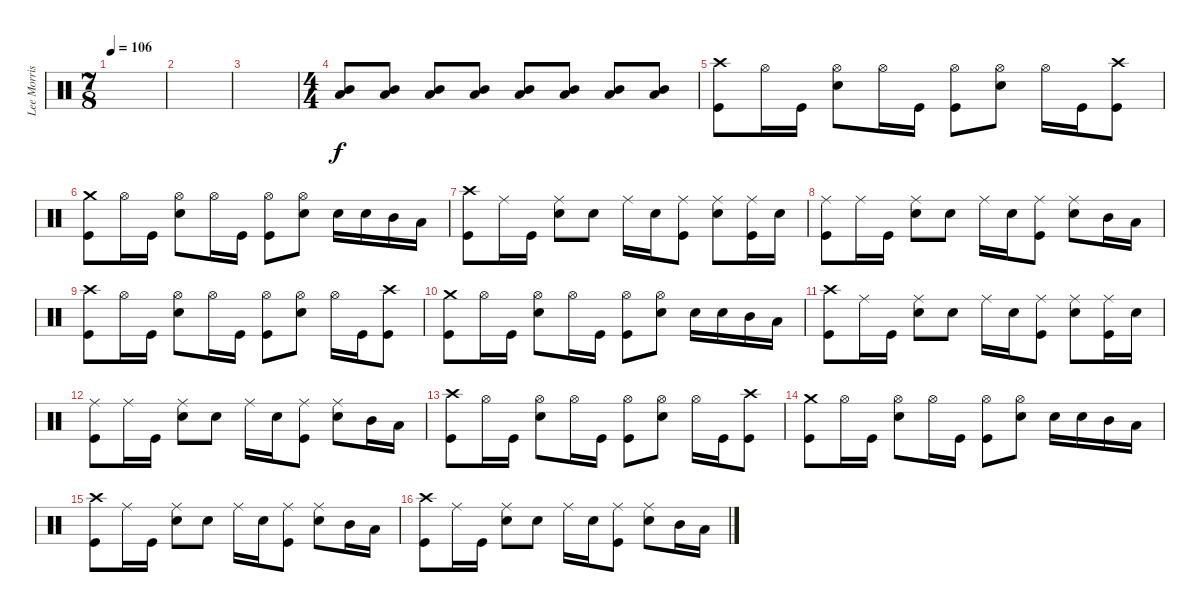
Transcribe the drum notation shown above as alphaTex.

\track ("Lee Morris" "Lee Morris") {instrument percussion}
\staff {score}
\articulation defaults
\ts (7 8)
\tempo 106
\clef neutral
\ks c
|
|
|
\ts (4 4)
("Mid Tom (hit)" "Low Tom (hit)").8 ("Mid Tom (hit)" "Low Tom (hit)").8 ("Mid Tom (hit)" "Low Tom (hit)").8 ("Mid Tom (hit)" "Low Tom (hit)").8 ("Mid Tom (hit)" "Low Tom (hit)").8 ("Mid Tom (hit)" "Low Tom (hit)").8 ("Mid Tom (hit)" "Low Tom (hit)").8 ("Mid Tom (hit)" "Low Tom (hit)").8 |
("Kick (hit)" "Crash high (hit)").8 "Hi-Hat (open)".16 "Kick (hit)".16 ("Snare (hit) 2" "Hi-Hat (open)").8 "Hi-Hat (open)".16 "Kick (hit)".16 ("Kick (hit)" "Hi-Hat (open)").8 ("Snare (hit) 2" "Hi-Hat (open)").8 "Hi-Hat (open)".16 "Kick (hit)".16 ("Kick (hit)" "Crash high (hit)").8 |
("Kick (hit)" "Crash medium (hit)").8 "Hi-Hat (open)".16 "Kick (hit)".16 ("Snare (hit) 2" "Hi-Hat (open)").8 "Hi-Hat (open)".16 "Kick (hit)".16 ("Kick (hit)" "Hi-Hat (open)").8 ("Snare (hit) 2" "Hi-Hat (open)").8 "Snare (hit) 2".16 "Snare (hit) 2".16 "Mid Tom (hit)".16 "Low Tom (hit)".16 |
("Kick (hit)" "Crash high (hit)").8 "Ride (middle)".16 "Kick (hit)".16 ("Snare (hit) 2" "Ride (middle)").8 "Snare (hit) 2".8 "Ride (middle)".16 "Snare (hit) 2".16 ("Kick (hit)" "Ride (middle)").8 ("Snare (hit) 2" "Ride (middle)").8 ("Kick (hit)" "Ride (middle)").16 "Snare (hit) 2".16 |
("Kick (hit)" "Ride (middle)").8 "Ride (middle)".16 "Kick (hit)".16 ("Snare (hit) 2" "Ride (middle)").8 "Snare (hit) 2".8 "Ride (middle)".16 "Snare (hit) 2".16 ("Kick (hit)" "Ride (middle)").8 ("Snare (hit) 2" "Ride (middle)").8 "Mid Tom (hit)".16 "Low Tom (hit)".16 |
("Kick (hit)" "Crash high (hit)").8 "Hi-Hat (open)".16 "Kick (hit)".16 ("Snare (hit) 2" "Hi-Hat (open)").8 "Hi-Hat (open)".16 "Kick (hit)".16 ("Kick (hit)" "Hi-Hat (open)").8 ("Snare (hit) 2" "Hi-Hat (open)").8 "Hi-Hat (open)".16 "Kick (hit)".16 ("Kick (hit)" "Crash high (hit)").8 |
("Kick (hit)" "Crash medium (hit)").8 "Hi-Hat (open)".16 "Kick (hit)".16 ("Snare (hit) 2" "Hi-Hat (open)").8 "Hi-Hat (open)".16 "Kick (hit)".16 ("Kick (hit)" "Hi-Hat (open)").8 ("Snare (hit) 2" "Hi-Hat (open)").8 "Snare (hit) 2".16 "Snare (hit) 2".16 "Mid Tom (hit)".16 "Low Tom (hit)".16 |
("Kick (hit)" "Crash high (hit)").8 "Ride (middle)".16 "Kick (hit)".16 ("Snare (hit) 2" "Ride (middle)").8 "Snare (hit) 2".8 "Ride (middle)".16 "Snare (hit) 2".16 ("Kick (hit)" "Ride (middle)").8 ("Snare (hit) 2" "Ride (middle)").8 ("Kick (hit)" "Ride (middle)").16 "Snare (hit) 2".16 |
("Kick (hit)" "Ride (middle)").8 "Ride (middle)".16 "Kick (hit)".16 ("Snare (hit) 2" "Ride (middle)").8 "Snare (hit) 2".8 "Ride (middle)".16 "Snare (hit) 2".16 ("Kick (hit)" "Ride (middle)").8 ("Snare (hit) 2" "Ride (middle)").8 "Mid Tom (hit)".16 "Low Tom (hit)".16 |
("Kick (hit)" "Crash high (hit)").8 "Hi-Hat (open)".16 "Kick (hit)".16 ("Snare (hit) 2" "Hi-Hat (open)").8 "Hi-Hat (open)".16 "Kick (hit)".16 ("Kick (hit)" "Hi-Hat (open)").8 ("Snare (hit) 2" "Hi-Hat (open)").8 "Hi-Hat (open)".16 "Kick (hit)".16 ("Kick (hit)" "Crash high (hit)").8 |
("Kick (hit)" "Crash medium (hit)").8 "Hi-Hat (open)".16 "Kick (hit)".16 ("Snare (hit) 2" "Hi-Hat (open)").8 "Hi-Hat (open)".16 "Kick (hit)".16 ("Kick (hit)" "Hi-Hat (open)").8 ("Snare (hit) 2" "Hi-Hat (open)").8 "Snare (hit) 2".16 "Snare (hit) 2".16 "Mid Tom (hit)".16 "Low Tom (hit)".16 |
("Kick (hit)" "Crash high (hit)").8 "Ride (middle)".16 "Kick (hit)".16 ("Snare (hit) 2" "Ride (middle)").8 "Snare (hit) 2".8 "Ride (middle)".16 "Snare (hit) 2".16 ("Kick (hit)" "Ride (middle)").8 ("Snare (hit) 2" "Ride (middle)").8 "Mid Tom (hit)".16 "Low Tom (hit)".16 |
("Kick (hit)" "Crash high (hit)").8 "Ride (middle)".16 "Kick (hit)".16 ("Snare (hit) 2" "Ride (middle)").8 "Snare (hit) 2".8 "Ride (middle)".16 "Snare (hit) 2".16 ("Kick (hit)" "Ride (middle)").8 ("Snare (hit) 2" "Ride (middle)").8 "Mid Tom (hit)".16 "Low Tom (hit)".16
